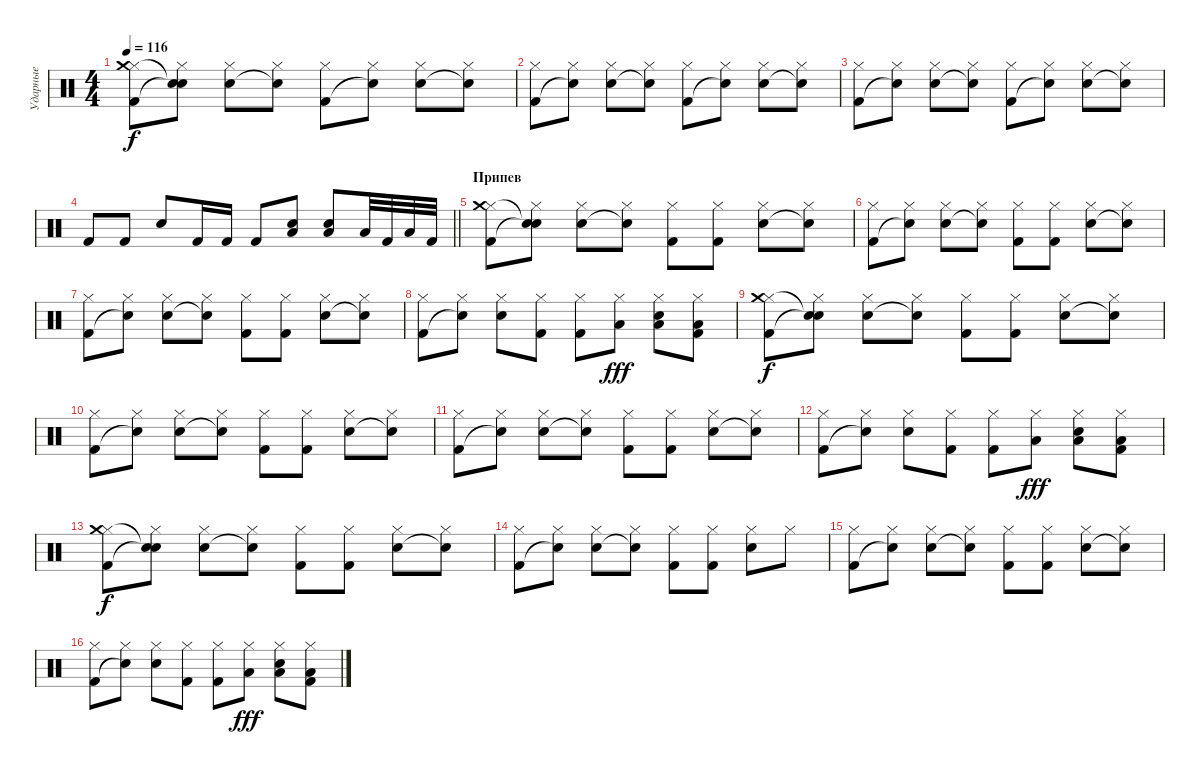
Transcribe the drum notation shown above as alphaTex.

\track ("Ударные" "Ударные") {instrument percussion}
\staff {score}
\articulation defaults
\ts (4 4)
\tempo 116
\clef neutral
\ks c
("Hi-Hat (closed)" "Crash medium (hit)" "Kick (hit) 2").8{dy f} ("Hi-Hat (closed)" "Snare (hit)"{t} "Snare (hit)"{t}).8 ("Hi-Hat (closed)" "Snare (hit) 2").8 ("Hi-Hat (closed)" "Snare (hit)"{t}).8 ("Hi-Hat (closed)" "Kick (hit) 2").8 ("Hi-Hat (closed)" "Snare (hit)"{t}).8 ("Hi-Hat (closed)" "Snare (hit) 2").8 ("Hi-Hat (closed)" "Snare (hit)"{t}).8 |
("Hi-Hat (closed)" "Kick (hit) 2").8 ("Hi-Hat (closed)" "Snare (hit)"{t}).8 ("Hi-Hat (closed)" "Snare (hit) 2").8 ("Hi-Hat (closed)" "Snare (hit)"{t}).8 ("Hi-Hat (closed)" "Kick (hit) 2").8 ("Hi-Hat (closed)" "Snare (hit)"{t}).8 ("Hi-Hat (closed)" "Snare (hit) 2").8 ("Hi-Hat (closed)" "Snare (hit)"{t}).8 |
("Hi-Hat (closed)" "Kick (hit) 2").8 ("Hi-Hat (closed)" "Snare (hit)"{t}).8 ("Hi-Hat (closed)" "Snare (hit) 2").8 ("Hi-Hat (closed)" "Snare (hit)"{t}).8 ("Hi-Hat (closed)" "Kick (hit) 2").8 ("Hi-Hat (closed)" "Snare (hit)"{t}).8 ("Hi-Hat (closed)" "Snare (hit) 2").8 ("Hi-Hat (closed)" "Snare (hit)"{t}).8 |
\barLineRight lightlight "Kick (hit) 2".8 "Kick (hit) 2".8 "Snare (hit) 2".8 "Kick (hit) 2".16 "Kick (hit) 2".16 "Kick (hit) 2".8
("Snare (hit) 2" "Low Tom (hit)").8 ("Snare (hit) 2" "Low Tom (hit)").8 "Low Floor Tom (hit)".32 "Kick (hit) 2".32 "Low Floor Tom (hit)".32 "Kick (hit) 2".32 |
\section ("" "Припев")
("Hi-Hat (closed)" "Crash medium (hit)" "Kick (hit) 2").8 ("Hi-Hat (closed)" "Snare (hit)"{t} "Snare (hit)"{t}).8 ("Hi-Hat (closed)" "Snare (hit) 2").8 ("Hi-Hat (closed)" "Snare (hit)"{t}).8 ("Hi-Hat (closed)" "Kick (hit) 2").8 ("Hi-Hat (closed)" "Kick (hit) 2").8 ("Hi-Hat (closed)" "Snare (hit) 2").8 ("Hi-Hat (closed)" "Snare (hit)"{t}).8 |
("Hi-Hat (closed)" "Kick (hit) 2").8 ("Hi-Hat (closed)" "Snare (hit)"{t}).8 ("Hi-Hat (closed)" "Snare (hit) 2").8 ("Hi-Hat (closed)" "Snare (hit)"{t}).8 ("Hi-Hat (closed)" "Kick (hit) 2").8 ("Hi-Hat (closed)" "Kick (hit) 2").8 ("Hi-Hat (closed)" "Snare (hit) 2").8 ("Hi-Hat (closed)" "Snare (hit)"{t}).8 |
("Hi-Hat (closed)" "Kick (hit) 2").8 ("Hi-Hat (closed)" "Snare (hit)"{t}).8 ("Hi-Hat (closed)" "Snare (hit) 2").8 ("Hi-Hat (closed)" "Snare (hit)"{t}).8 ("Hi-Hat (closed)" "Kick (hit) 2").8 ("Hi-Hat (closed)" "Kick (hit) 2").8 ("Hi-Hat (closed)" "Snare (hit) 2").8 ("Hi-Hat (closed)" "Snare (hit)"{t}).8 |
("Hi-Hat (closed)" "Kick (hit) 2").8 ("Hi-Hat (closed)" "Snare (hit)"{t}).8 ("Hi-Hat (closed)" "Snare (hit) 2").8 ("Hi-Hat (closed)" "Kick (hit) 2").8 ("Hi-Hat (closed)" "Kick (hit) 2").8 ("Hi-Hat (closed)" "Low Tom (hit)").8{dy fff} ("Hi-Hat (closed)" "Snare (hit) 2" "Low Tom (hit)").8 ("Hi-Hat (closed)" "Kick (hit) 2" "Low Tom (hit)").8 |
("Hi-Hat (closed)" "Crash medium (hit)" "Kick (hit) 2").8{dy f} ("Hi-Hat (closed)" "Snare (hit)"{t} "Snare (hit)"{t}).8 ("Hi-Hat (closed)" "Snare (hit) 2").8 ("Hi-Hat (closed)" "Snare (hit)"{t}).8 ("Hi-Hat (closed)" "Kick (hit) 2").8 ("Hi-Hat (closed)" "Kick (hit) 2").8 ("Hi-Hat (closed)" "Snare (hit) 2").8 ("Hi-Hat (closed)" "Snare (hit)"{t}).8 |
("Hi-Hat (closed)" "Kick (hit) 2").8 ("Hi-Hat (closed)" "Snare (hit)"{t}).8 ("Hi-Hat (closed)" "Snare (hit) 2").8 ("Hi-Hat (closed)" "Snare (hit)"{t}).8 ("Hi-Hat (closed)" "Kick (hit) 2").8 ("Hi-Hat (closed)" "Kick (hit) 2").8 ("Hi-Hat (closed)" "Snare (hit) 2").8 ("Hi-Hat (closed)" "Snare (hit)"{t}).8 |
("Hi-Hat (closed)" "Kick (hit) 2").8 ("Hi-Hat (closed)" "Snare (hit)"{t}).8 ("Hi-Hat (closed)" "Snare (hit) 2").8 ("Hi-Hat (closed)" "Snare (hit)"{t}).8 ("Hi-Hat (closed)" "Kick (hit) 2").8 ("Hi-Hat (closed)" "Kick (hit) 2").8 ("Hi-Hat (closed)" "Snare (hit) 2").8 ("Hi-Hat (closed)" "Snare (hit)"{t}).8 |
("Hi-Hat (closed)" "Kick (hit) 2").8 ("Hi-Hat (closed)" "Snare (hit)"{t}).8 ("Hi-Hat (closed)" "Snare (hit) 2").8 ("Hi-Hat (closed)" "Kick (hit) 2").8 ("Hi-Hat (closed)" "Kick (hit) 2").8 ("Hi-Hat (closed)" "Low Tom (hit)").8{dy fff} ("Hi-Hat (closed)" "Snare (hit) 2" "Low Tom (hit)").8 ("Hi-Hat (closed)" "Kick (hit) 2" "Low Tom (hit)").8 |
("Hi-Hat (closed)" "Crash medium (hit)" "Kick (hit) 2").8{dy f} ("Hi-Hat (closed)" "Snare (hit)"{t} "Snare (hit)"{t}).8 ("Hi-Hat (closed)" "Snare (hit) 2").8 ("Hi-Hat (closed)" "Snare (hit)"{t}).8 ("Hi-Hat (closed)" "Kick (hit) 2").8 ("Hi-Hat (closed)" "Kick (hit) 2").8 ("Hi-Hat (closed)" "Snare (hit) 2").8 ("Hi-Hat (closed)" "Snare (hit)"{t}).8 |
("Hi-Hat (closed)" "Kick (hit) 2").8 ("Hi-Hat (closed)" "Snare (hit)"{t}).8 ("Hi-Hat (closed)" "Snare (hit) 2").8 ("Hi-Hat (closed)" "Snare (hit)"{t}).8 ("Hi-Hat (closed)" "Kick (hit) 2").8 ("Hi-Hat (closed)" "Kick (hit) 2").8 ("Hi-Hat (closed)" "Snare (hit) 2").8 "Hi-Hat (closed)".8 |
("Hi-Hat (closed)" "Kick (hit) 2").8 ("Hi-Hat (closed)" "Snare (hit)"{t}).8 ("Hi-Hat (closed)" "Snare (hit) 2").8 ("Hi-Hat (closed)" "Snare (hit)"{t}).8 ("Hi-Hat (closed)" "Kick (hit) 2").8 ("Hi-Hat (closed)" "Kick (hit) 2").8 ("Hi-Hat (closed)" "Snare (hit) 2").8 ("Hi-Hat (closed)" "Snare (hit)"{t}).8 |
("Hi-Hat (closed)" "Kick (hit) 2").8 ("Hi-Hat (closed)" "Snare (hit)"{t}).8 ("Hi-Hat (closed)" "Snare (hit) 2").8 ("Hi-Hat (closed)" "Kick (hit) 2").8 ("Hi-Hat (closed)" "Kick (hit) 2").8 ("Hi-Hat (closed)" "Low Tom (hit)").8{dy fff} ("Hi-Hat (closed)" "Snare (hit) 2" "Low Tom (hit)").8 ("Hi-Hat (closed)" "Kick (hit) 2" "Low Tom (hit)").8
